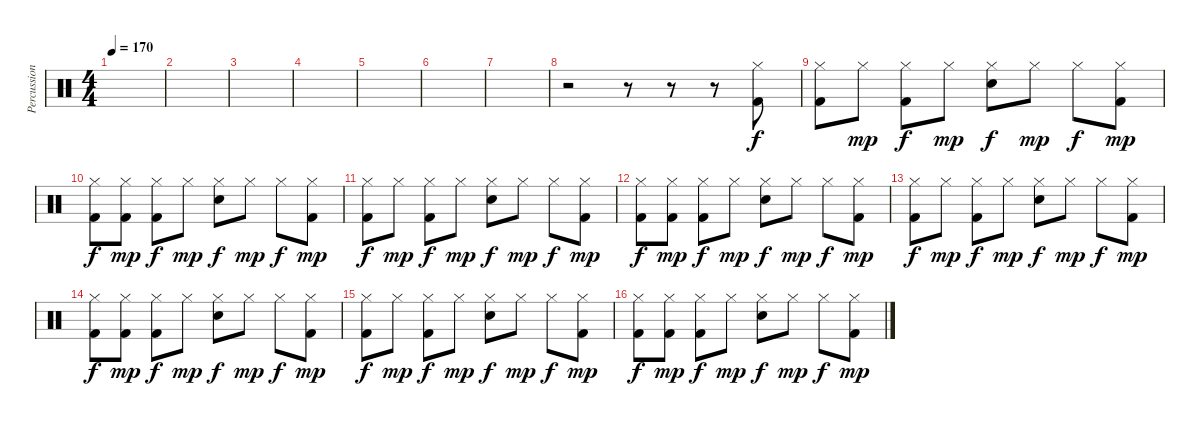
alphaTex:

\track ("Percussion" "Percussion") {instrument percussion}
\staff {score}
\articulation defaults
\ts (4 4)
\tempo 170
\clef neutral
\ks c
|
|
|
|
|
|
|
r.2 r.8 r.8 r.8 ("Hi-Hat (closed)" "Kick (hit) 2").8 |
("Hi-Hat (closed)" "Kick (hit) 2").8 "Hi-Hat (closed)".8{dy mp} ("Hi-Hat (closed)" "Kick (hit) 2").8{dy f} "Hi-Hat (closed)".8{dy mp} ("Hi-Hat (closed)" "Snare (hit) 2").8{dy f} "Hi-Hat (closed)".8{dy mp} "Hi-Hat (closed)".8{dy f} ("Hi-Hat (closed)" "Kick (hit) 2").8{dy mp} |
("Hi-Hat (closed)" "Kick (hit) 2").8{dy f} ("Hi-Hat (closed)" "Kick (hit) 2").8{dy mp} ("Hi-Hat (closed)" "Kick (hit) 2").8{dy f} "Hi-Hat (closed)".8{dy mp} ("Hi-Hat (closed)" "Snare (hit) 2").8{dy f} "Hi-Hat (closed)".8{dy mp} "Hi-Hat (closed)".8{dy f} ("Hi-Hat (closed)" "Kick (hit) 2").8{dy mp} |
("Hi-Hat (closed)" "Kick (hit) 2").8{dy f} "Hi-Hat (closed)".8{dy mp} ("Hi-Hat (closed)" "Kick (hit) 2").8{dy f} "Hi-Hat (closed)".8{dy mp} ("Hi-Hat (closed)" "Snare (hit) 2").8{dy f} "Hi-Hat (closed)".8{dy mp} "Hi-Hat (closed)".8{dy f} ("Hi-Hat (closed)" "Kick (hit) 2").8{dy mp} |
("Hi-Hat (closed)" "Kick (hit) 2").8{dy f} ("Hi-Hat (closed)" "Kick (hit) 2").8{dy mp} ("Hi-Hat (closed)" "Kick (hit) 2").8{dy f} "Hi-Hat (closed)".8{dy mp} ("Hi-Hat (closed)" "Snare (hit) 2").8{dy f} "Hi-Hat (closed)".8{dy mp} "Hi-Hat (closed)".8{dy f} ("Hi-Hat (closed)" "Kick (hit) 2").8{dy mp} |
("Hi-Hat (closed)" "Kick (hit) 2").8{dy f} "Hi-Hat (closed)".8{dy mp} ("Hi-Hat (closed)" "Kick (hit) 2").8{dy f} "Hi-Hat (closed)".8{dy mp} ("Hi-Hat (closed)" "Snare (hit) 2").8{dy f} "Hi-Hat (closed)".8{dy mp} "Hi-Hat (closed)".8{dy f} ("Hi-Hat (closed)" "Kick (hit) 2").8{dy mp} |
("Hi-Hat (closed)" "Kick (hit) 2").8{dy f} ("Hi-Hat (closed)" "Kick (hit) 2").8{dy mp} ("Hi-Hat (closed)" "Kick (hit) 2").8{dy f} "Hi-Hat (closed)".8{dy mp} ("Hi-Hat (closed)" "Snare (hit) 2").8{dy f} "Hi-Hat (closed)".8{dy mp} "Hi-Hat (closed)".8{dy f} ("Hi-Hat (closed)" "Kick (hit) 2").8{dy mp} |
("Hi-Hat (closed)" "Kick (hit) 2").8{dy f} "Hi-Hat (closed)".8{dy mp} ("Hi-Hat (closed)" "Kick (hit) 2").8{dy f} "Hi-Hat (closed)".8{dy mp} ("Hi-Hat (closed)" "Snare (hit) 2").8{dy f} "Hi-Hat (closed)".8{dy mp} "Hi-Hat (closed)".8{dy f} ("Hi-Hat (closed)" "Kick (hit) 2").8{dy mp} |
("Hi-Hat (closed)" "Kick (hit) 2").8{dy f} ("Hi-Hat (closed)" "Kick (hit) 2").8{dy mp} ("Hi-Hat (closed)" "Kick (hit) 2").8{dy f} "Hi-Hat (closed)".8{dy mp} ("Hi-Hat (closed)" "Snare (hit) 2").8{dy f} "Hi-Hat (closed)".8{dy mp} "Hi-Hat (closed)".8{dy f} ("Hi-Hat (closed)" "Kick (hit) 2").8{dy mp}
